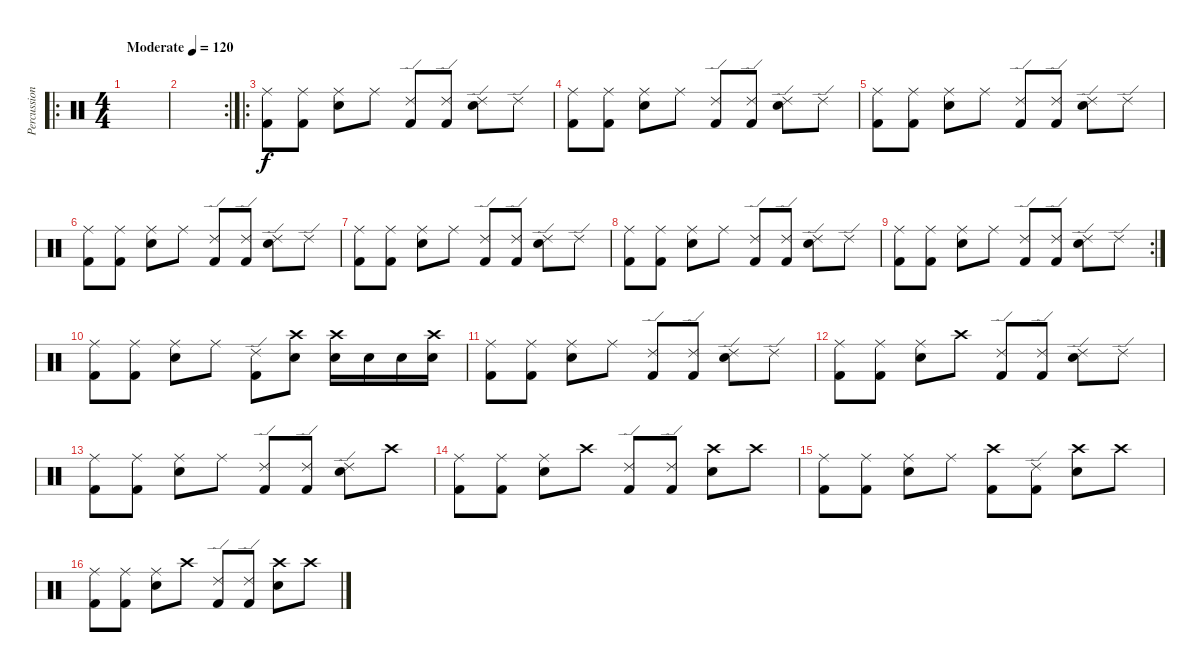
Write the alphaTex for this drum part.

\track ("Percussion" "Percussion") {instrument percussion}
\staff {score}
\articulation defaults
\ro
\ts (4 4)
\tempo (120 "Moderate")
\clef neutral
\ks c
|
\rc 2
|
\ro
("Ride (middle)" "Kick (hit) 2").8 ("Ride (middle)" "Kick (hit) 2").8 ("Ride (middle)" "Snare (hit) 2").8 "Ride (middle)".8 ("Ride (edge) 2" "Kick (hit) 2").8 ("Ride (edge) 2" "Kick (hit) 2").8 ("Ride (edge) 2" "Snare (hit) 2").8 "Ride (edge) 2".8 |
("Ride (middle)" "Kick (hit) 2").8 ("Ride (middle)" "Kick (hit) 2").8 ("Ride (middle)" "Snare (hit) 2").8 "Ride (middle)".8 ("Ride (edge) 2" "Kick (hit) 2").8 ("Ride (edge) 2" "Kick (hit) 2").8 ("Ride (edge) 2" "Snare (hit) 2").8 "Ride (edge) 2".8 |
("Ride (middle)" "Kick (hit) 2").8 ("Ride (middle)" "Kick (hit) 2").8 ("Ride (middle)" "Snare (hit) 2").8 "Ride (middle)".8 ("Ride (edge) 2" "Kick (hit) 2").8 ("Ride (edge) 2" "Kick (hit) 2").8 ("Ride (edge) 2" "Snare (hit) 2").8 "Ride (edge) 2".8 |
("Ride (middle)" "Kick (hit) 2").8 ("Ride (middle)" "Kick (hit) 2").8 ("Ride (middle)" "Snare (hit) 2").8 "Ride (middle)".8 ("Ride (edge) 2" "Kick (hit) 2").8 ("Ride (edge) 2" "Kick (hit) 2").8 ("Ride (edge) 2" "Snare (hit) 2").8 "Ride (edge) 2".8 |
("Ride (middle)" "Kick (hit) 2").8 ("Ride (middle)" "Kick (hit) 2").8 ("Ride (middle)" "Snare (hit) 2").8 "Ride (middle)".8 ("Ride (edge) 2" "Kick (hit) 2").8 ("Ride (edge) 2" "Kick (hit) 2").8 ("Ride (edge) 2" "Snare (hit) 2").8 "Ride (edge) 2".8 |
("Ride (middle)" "Kick (hit) 2").8 ("Ride (middle)" "Kick (hit) 2").8 ("Ride (middle)" "Snare (hit) 2").8 "Ride (middle)".8 ("Ride (edge) 2" "Kick (hit) 2").8 ("Ride (edge) 2" "Kick (hit) 2").8 ("Ride (edge) 2" "Snare (hit) 2").8 "Ride (edge) 2".8 |
\rc 2
("Ride (middle)" "Kick (hit) 2").8 ("Ride (middle)" "Kick (hit) 2").8 ("Ride (middle)" "Snare (hit) 2").8 "Ride (middle)".8 ("Ride (edge) 2" "Kick (hit) 2").8 ("Ride (edge) 2" "Kick (hit) 2").8 ("Ride (edge) 2" "Snare (hit) 2").8 "Ride (edge) 2".8 |
("Ride (middle)" "Kick (hit) 2").8 ("Ride (middle)" "Kick (hit) 2").8 ("Ride (middle)" "Snare (hit) 2").8 "Ride (middle)".8 ("Ride (edge) 2" "Kick (hit) 2").8 ("Crash high (hit)" "Snare (hit) 2").8 ("Crash high (hit)" "Snare (hit) 2").16 "Snare (hit) 2".16 "Snare (hit) 2".16 ("Crash high (hit)" "Snare (hit) 2").16 |
("Ride (middle)" "Kick (hit) 2").8 ("Ride (middle)" "Kick (hit) 2").8 ("Ride (middle)" "Snare (hit) 2").8 "Ride (middle)".8 ("Ride (edge) 2" "Kick (hit) 2").8 ("Ride (edge) 2" "Kick (hit) 2").8 ("Ride (edge) 2" "Snare (hit) 2").8 "Ride (edge) 2".8 |
("Ride (middle)" "Kick (hit) 2").8 ("Ride (middle)" "Kick (hit) 2").8 ("Ride (middle)" "Snare (hit) 2").8 "Crash high (hit)".8 ("Ride (edge) 2" "Kick (hit) 2").8 ("Ride (edge) 2" "Kick (hit) 2").8 ("Ride (edge) 2" "Snare (hit) 2").8 "Ride (edge) 2".8 |
("Ride (middle)" "Kick (hit) 2").8 ("Ride (middle)" "Kick (hit) 2").8 ("Ride (middle)" "Snare (hit) 2").8 "Ride (middle)".8 ("Ride (edge) 2" "Kick (hit) 2").8 ("Ride (edge) 2" "Kick (hit) 2").8 ("Ride (edge) 2" "Snare (hit) 2").8 "Crash high (hit)".8 |
("Ride (middle)" "Kick (hit) 2").8 ("Ride (middle)" "Kick (hit) 2").8 ("Ride (middle)" "Snare (hit) 2").8 "Crash high (hit)".8 ("Ride (edge) 2" "Kick (hit) 2").8 ("Ride (edge) 2" "Kick (hit) 2").8 ("Crash high (hit)" "Snare (hit) 2").8 "Crash high (hit)".8 |
("Ride (middle)" "Kick (hit) 2").8 ("Ride (middle)" "Kick (hit) 2").8 ("Ride (middle)" "Snare (hit) 2").8 "Ride (middle)".8 ("Crash high (hit)" "Kick (hit) 2").8 ("Ride (edge) 2" "Kick (hit) 2").8 ("Crash high (hit)" "Snare (hit) 2").8 "Crash high (hit)".8 |
("Ride (middle)" "Kick (hit) 2").8 ("Ride (middle)" "Kick (hit) 2").8 ("Ride (middle)" "Snare (hit) 2").8 "Crash high (hit)".8 ("Ride (edge) 2" "Kick (hit) 2").8 ("Ride (edge) 2" "Kick (hit) 2").8 ("Crash high (hit)" "Snare (hit) 2").8 "Crash high (hit)".8
